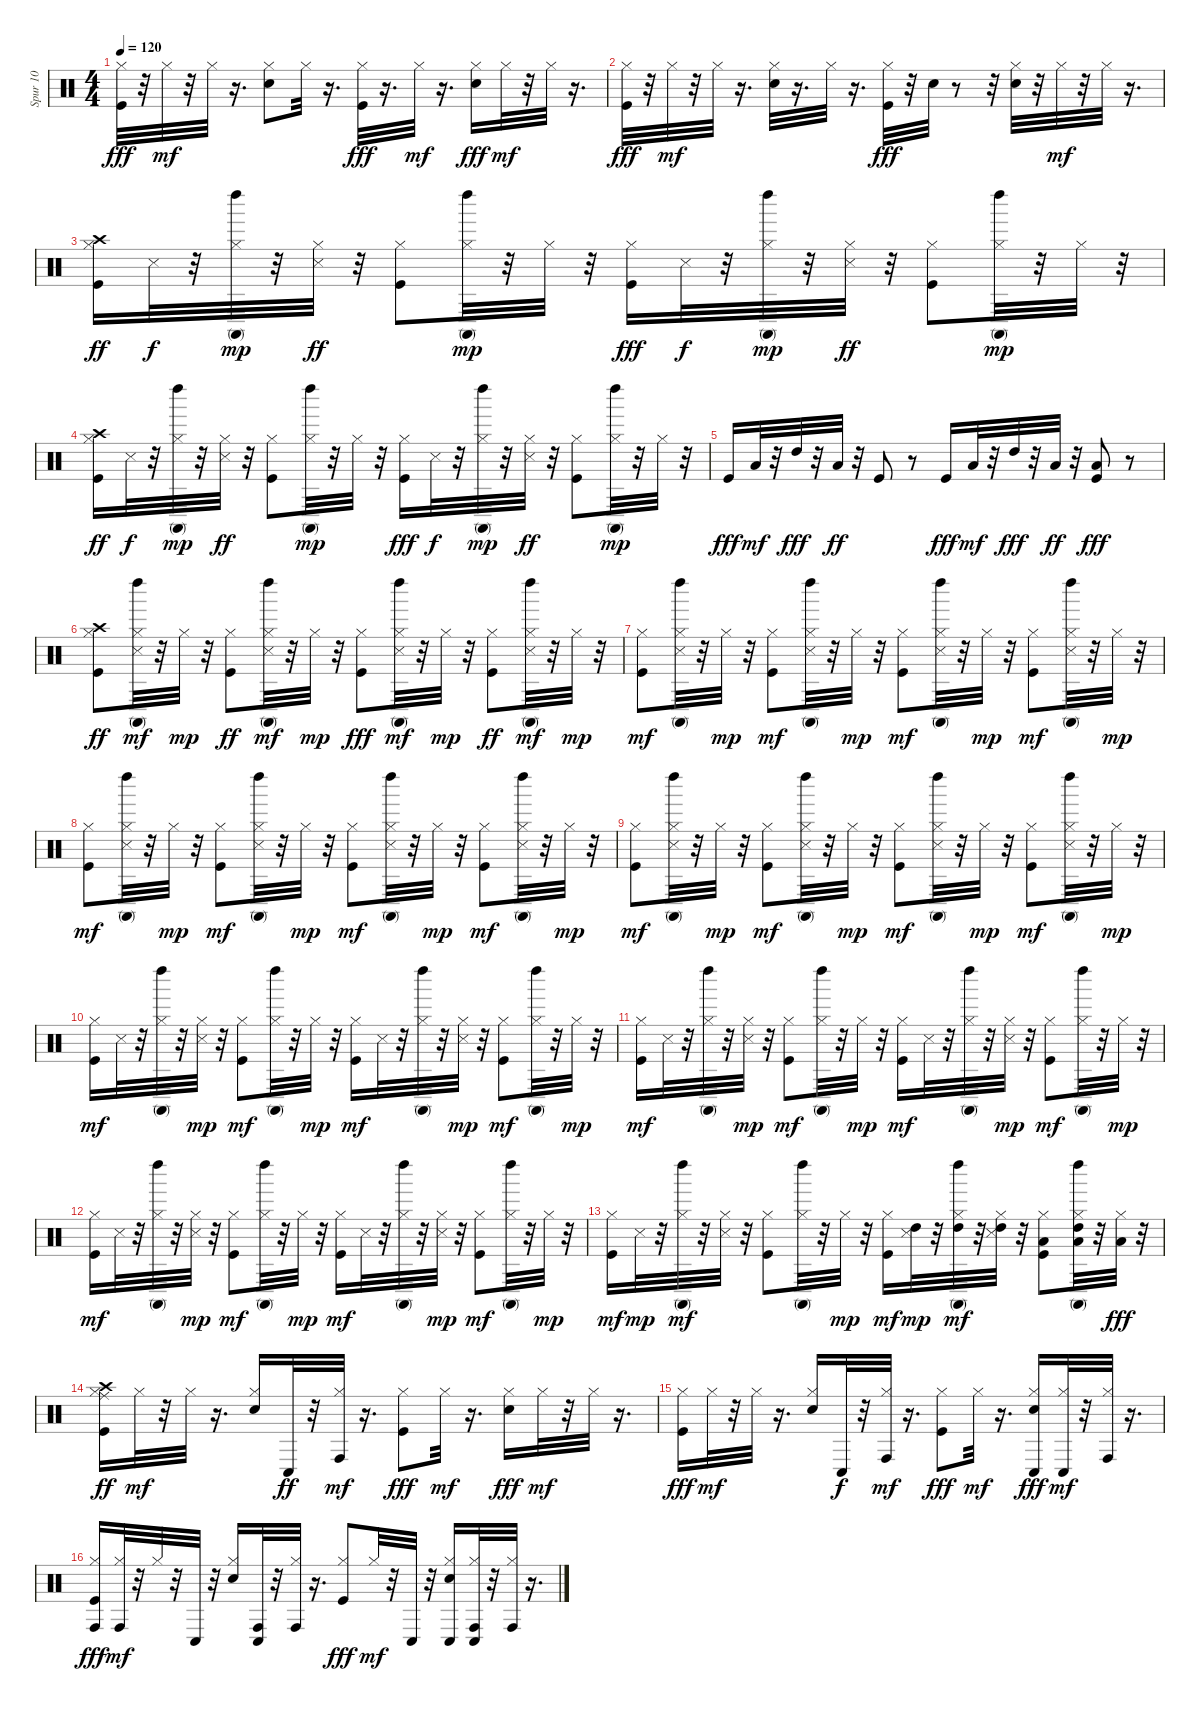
\track ("Spur 10" "Spur 10") {instrument percussion}
\staff {score}
\articulation defaults
\ts (4 4)
\tempo 120
\clef neutral
\ks c
("Kick (hit)" "Hi-Hat (closed)").32{dy fff} r.32 "Hi-Hat (closed)".32{dy mf} r.32 "Hi-Hat (closed)".32 r.16{d} ("Snare (hit) 2" "Hi-Hat (closed)").8 "Hi-Hat (closed)".32 r.16{d} ("Kick (hit)" "Hi-Hat (closed)").32{dy fff} r.16{d} "Hi-Hat (closed)".32{dy mf} r.16{d} ("Snare (hit) 2" "Hi-Hat (closed)").16{dy fff} "Hi-Hat (closed)".32{dy mf} r.32 "Hi-Hat (closed)".32 r.16{d} |
("Kick (hit)" "Hi-Hat (closed)").32{dy fff} r.32 "Hi-Hat (closed)".32{dy mf} r.32 "Hi-Hat (closed)".32 r.16{d} ("Snare (hit) 2" "Hi-Hat (closed)").32 r.16{d} "Hi-Hat (closed)".32 r.16{d} ("Kick (hit)" "Hi-Hat (closed)").32{dy fff} r.32 "Snare (hit) 2".32 r.8 r.32 ("Snare (hit) 2" "Hi-Hat (closed)").32 r.32 "Hi-Hat (closed)".32{dy mf} r.32 "Hi-Hat (closed)".32 r.16{d} |
("Kick (hit)" "Hi-Hat (closed)" "Crash high (hit)").16{dy ff} "Snare (side stick) 3".32{dy f} r.32 ("Hi-Hat (closed)" "Conga high (mute)" "Left Maraca (hit)").32{dy mp} r.32 ("Hi-Hat (closed)" "Snare (side stick) 3").32{dy ff} r.32 ("Kick (hit)" "Hi-Hat (closed)").8 ("Hi-Hat (closed)" "Conga high (mute)" "Left Maraca (hit)").32{dy mp} r.32 "Hi-Hat (closed)".32 r.32 ("Kick (hit)" "Hi-Hat (closed)").16{dy fff} "Snare (side stick) 3".32{dy f} r.32 ("Hi-Hat (closed)" "Conga high (mute)" "Left Maraca (hit)").32{dy mp} r.32 ("Hi-Hat (closed)" "Snare (side stick) 3").32{dy ff} r.32 ("Kick (hit)" "Hi-Hat (closed)").8 ("Hi-Hat (closed)" "Conga high (mute)" "Left Maraca (hit)").32{dy mp} r.32 "Hi-Hat (closed)".32 r.32 |
("Kick (hit)" "Hi-Hat (closed)" "Crash high (hit)").16{dy ff} "Snare (side stick) 3".32{dy f} r.32 ("Hi-Hat (closed)" "Conga high (mute)" "Left Maraca (hit)").32{dy mp} r.32 ("Hi-Hat (closed)" "Snare (side stick) 3").32{dy ff} r.32 ("Kick (hit)" "Hi-Hat (closed)").8 ("Hi-Hat (closed)" "Conga high (mute)" "Left Maraca (hit)").32{dy mp} r.32 "Hi-Hat (closed)".32 r.32 ("Kick (hit)" "Hi-Hat (closed)").16{dy fff} "Snare (side stick) 3".32{dy f} r.32 ("Hi-Hat (closed)" "Conga high (mute)" "Left Maraca (hit)").32{dy mp} r.32 ("Hi-Hat (closed)" "Snare (side stick) 3").32{dy ff} r.32 ("Kick (hit)" "Hi-Hat (closed)").8 ("Hi-Hat (closed)" "Conga high (mute)" "Left Maraca (hit)").32{dy mp} r.32 "Hi-Hat (closed)".32 r.32 |
"Kick (hit)".16{dy fff} "Low Tom (hit)".32{dy mf} r.32 "High Tom (hit)".32{dy fff} r.32 "Low Tom (hit)".32{dy ff} r.32 "Kick (hit)".8 r.8 "Kick (hit)".16{dy fff} "Low Tom (hit)".32{dy mf} r.32 "High Tom (hit)".32{dy fff} r.32 "Low Tom (hit)".32{dy ff} r.32 ("Kick (hit)" "Low Floor Tom (hit)").8{dy fff} r.8 |
("Kick (hit)" "Hi-Hat (closed)" "Crash high (hit)").8{dy ff} ("Hi-Hat (closed)" "Snare (side stick) 3" "Conga high (mute)" "Left Maraca (hit)").32{dy mf} r.32 "Hi-Hat (closed)".32{dy mp} r.32 ("Kick (hit)" "Hi-Hat (closed)").8{dy ff} ("Hi-Hat (closed)" "Snare (side stick) 3" "Conga high (mute)" "Left Maraca (hit)").32{dy mf} r.32 "Hi-Hat (closed)".32{dy mp} r.32 ("Kick (hit)" "Hi-Hat (closed)").8{dy fff} ("Hi-Hat (closed)" "Snare (side stick) 3" "Conga high (mute)" "Left Maraca (hit)").32{dy mf} r.32 "Hi-Hat (closed)".32{dy mp} r.32 ("Kick (hit)" "Hi-Hat (closed)").8{dy ff} ("Hi-Hat (closed)" "Snare (side stick) 3" "Conga high (mute)" "Left Maraca (hit)").32{dy mf} r.32 "Hi-Hat (closed)".32{dy mp} r.32 |
("Kick (hit)" "Hi-Hat (closed)").8{dy mf} ("Hi-Hat (closed)" "Snare (side stick) 3" "Conga high (mute)" "Left Maraca (hit)").32 r.32 "Hi-Hat (closed)".32{dy mp} r.32 ("Kick (hit)" "Hi-Hat (closed)").8{dy mf} ("Hi-Hat (closed)" "Snare (side stick) 3" "Conga high (mute)" "Left Maraca (hit)").32 r.32 "Hi-Hat (closed)".32{dy mp} r.32 ("Kick (hit)" "Hi-Hat (closed)").8{dy mf} ("Hi-Hat (closed)" "Snare (side stick) 3" "Conga high (mute)" "Left Maraca (hit)").32 r.32 "Hi-Hat (closed)".32{dy mp} r.32 ("Kick (hit)" "Hi-Hat (closed)").8{dy mf} ("Hi-Hat (closed)" "Snare (side stick) 3" "Conga high (mute)" "Left Maraca (hit)").32 r.32 "Hi-Hat (closed)".32{dy mp} r.32 |
("Kick (hit)" "Hi-Hat (closed)").8{dy mf} ("Hi-Hat (closed)" "Snare (side stick) 3" "Conga high (mute)" "Left Maraca (hit)").32 r.32 "Hi-Hat (closed)".32{dy mp} r.32 ("Kick (hit)" "Hi-Hat (closed)").8{dy mf} ("Hi-Hat (closed)" "Snare (side stick) 3" "Conga high (mute)" "Left Maraca (hit)").32 r.32 "Hi-Hat (closed)".32{dy mp} r.32 ("Kick (hit)" "Hi-Hat (closed)").8{dy mf} ("Hi-Hat (closed)" "Snare (side stick) 3" "Conga high (mute)" "Left Maraca (hit)").32 r.32 "Hi-Hat (closed)".32{dy mp} r.32 ("Kick (hit)" "Hi-Hat (closed)").8{dy mf} ("Hi-Hat (closed)" "Snare (side stick) 3" "Conga high (mute)" "Left Maraca (hit)").32 r.32 "Hi-Hat (closed)".32{dy mp} r.32 |
("Kick (hit)" "Hi-Hat (closed)").8{dy mf} ("Hi-Hat (closed)" "Snare (side stick) 3" "Conga high (mute)" "Left Maraca (hit)").32 r.32 "Hi-Hat (closed)".32{dy mp} r.32 ("Kick (hit)" "Hi-Hat (closed)").8{dy mf} ("Hi-Hat (closed)" "Snare (side stick) 3" "Conga high (mute)" "Left Maraca (hit)").32 r.32 "Hi-Hat (closed)".32{dy mp} r.32 ("Kick (hit)" "Hi-Hat (closed)").8{dy mf} ("Hi-Hat (closed)" "Snare (side stick) 3" "Conga high (mute)" "Left Maraca (hit)").32 r.32 "Hi-Hat (closed)".32{dy mp} r.32 ("Kick (hit)" "Hi-Hat (closed)").8{dy mf} ("Hi-Hat (closed)" "Snare (side stick) 3" "Conga high (mute)" "Left Maraca (hit)").32 r.32 "Hi-Hat (closed)".32{dy mp} r.32 |
("Kick (hit)" "Hi-Hat (closed)").16{dy mf} "Snare (side stick) 3".32 r.32 ("Hi-Hat (closed)" "Conga high (mute)" "Left Maraca (hit)").32 r.32 ("Hi-Hat (closed)" "Snare (side stick) 3").32{dy mp} r.32 ("Kick (hit)" "Hi-Hat (closed)").8{dy mf} ("Hi-Hat (closed)" "Conga high (mute)" "Left Maraca (hit)").32 r.32 "Hi-Hat (closed)".32{dy mp} r.32 ("Kick (hit)" "Hi-Hat (closed)").16{dy mf} "Snare (side stick) 3".32 r.32 ("Hi-Hat (closed)" "Conga high (mute)" "Left Maraca (hit)").32 r.32 ("Hi-Hat (closed)" "Snare (side stick) 3").32{dy mp} r.32 ("Kick (hit)" "Hi-Hat (closed)").8{dy mf} ("Hi-Hat (closed)" "Conga high (mute)" "Left Maraca (hit)").32 r.32 "Hi-Hat (closed)".32{dy mp} r.32 |
("Kick (hit)" "Hi-Hat (closed)").16{dy mf} "Snare (side stick) 3".32 r.32 ("Hi-Hat (closed)" "Conga high (mute)" "Left Maraca (hit)").32 r.32 ("Hi-Hat (closed)" "Snare (side stick) 3").32{dy mp} r.32 ("Kick (hit)" "Hi-Hat (closed)").8{dy mf} ("Hi-Hat (closed)" "Conga high (mute)" "Left Maraca (hit)").32 r.32 "Hi-Hat (closed)".32{dy mp} r.32 ("Kick (hit)" "Hi-Hat (closed)").16{dy mf} "Snare (side stick) 3".32 r.32 ("Hi-Hat (closed)" "Conga high (mute)" "Left Maraca (hit)").32 r.32 ("Hi-Hat (closed)" "Snare (side stick) 3").32{dy mp} r.32 ("Kick (hit)" "Hi-Hat (closed)").8{dy mf} ("Hi-Hat (closed)" "Conga high (mute)" "Left Maraca (hit)").32 r.32 "Hi-Hat (closed)".32{dy mp} r.32 |
("Kick (hit)" "Hi-Hat (closed)").16{dy mf} "Snare (side stick) 3".32 r.32 ("Hi-Hat (closed)" "Conga high (mute)" "Left Maraca (hit)").32 r.32 ("Hi-Hat (closed)" "Snare (side stick) 3").32{dy mp} r.32 ("Kick (hit)" "Hi-Hat (closed)").8{dy mf} ("Hi-Hat (closed)" "Conga high (mute)" "Left Maraca (hit)").32 r.32 "Hi-Hat (closed)".32{dy mp} r.32 ("Kick (hit)" "Hi-Hat (closed)").16{dy mf} "Snare (side stick) 3".32 r.32 ("Hi-Hat (closed)" "Conga high (mute)" "Left Maraca (hit)").32 r.32 ("Hi-Hat (closed)" "Snare (side stick) 3").32{dy mp} r.32 ("Kick (hit)" "Hi-Hat (closed)").8{dy mf} ("Hi-Hat (closed)" "Conga high (mute)" "Left Maraca (hit)").32 r.32 "Hi-Hat (closed)".32{dy mp} r.32 |
("Kick (hit)" "Hi-Hat (closed)").16{dy mf} "Snare (side stick) 3".32{dy mp} r.32 ("Hi-Hat (closed)" "Conga high (mute)" "Left Maraca (hit)").32{dy mf} r.32 ("Hi-Hat (closed)" "Snare (side stick) 3").32 r.32 ("Kick (hit)" "Hi-Hat (closed)").8 ("Hi-Hat (closed)" "Conga high (mute)" "Left Maraca (hit)").32 r.32 "Hi-Hat (closed)".32{dy mp} r.32 ("Kick (hit)" "Hi-Hat (closed)").16{dy mf} ("High Tom (hit)" "Snare (side stick) 3").32{dy mp} r.32 ("Hi-Hat (closed)" "High Tom (hit)" "Conga high (mute)" "Left Maraca (hit)").32{dy mf} r.32 ("Hi-Hat (closed)" "High Tom (hit)" "Snare (side stick) 3").32 r.32 ("Kick (hit)" "Hi-Hat (closed)" "Low Tom (hit)").8 ("Hi-Hat (closed)" "High Tom (hit)" "Low Tom (hit)" "Conga high (mute)" "Left Maraca (hit)").32 r.32 ("Hi-Hat (closed)" "Low Tom (hit)").32{dy fff} r.32 |
("Kick (hit)" "Hi-Hat (closed)" "Ride (middle)" "Crash high (hit)").16{dy ff} "Hi-Hat (closed)".32{dy mf} r.32 "Hi-Hat (closed)".32 r.16{d} ("Snare (hit) 2" "Hi-Hat (closed)").16 "Conga low (hit)".32{dy ff} r.32 ("Hi-Hat (closed)" "Conga high (hit)").32{dy mf} r.16{d} ("Kick (hit)" "Hi-Hat (closed)").8{dy fff} "Hi-Hat (closed)".32{dy mf} r.16{d} ("Snare (hit) 2" "Hi-Hat (closed)").16{dy fff} "Hi-Hat (closed)".32{dy mf} r.32 "Hi-Hat (closed)".32 r.16{d} |
("Kick (hit)" "Hi-Hat (closed)").16{dy fff} "Hi-Hat (closed)".32{dy mf} r.32 "Hi-Hat (closed)".32 r.16{d} ("Snare (hit) 2" "Hi-Hat (closed)").16 "Conga low (hit)".32{dy f} r.32 ("Hi-Hat (closed)" "Conga high (hit)").32{dy mf} r.16{d} ("Kick (hit)" "Hi-Hat (closed)").8{dy fff} "Hi-Hat (closed)".32{dy mf} r.16{d} ("Snare (hit) 2" "Hi-Hat (closed)" "Conga low (hit)").16{dy fff} ("Hi-Hat (closed)" "Conga low (hit)").32{dy mf} r.32 ("Hi-Hat (closed)" "Conga high (hit)").32 r.16{d} |
("Kick (hit)" "Hi-Hat (closed)" "Conga high (hit)").16{dy fff} ("Hi-Hat (closed)" "Conga high (hit)").32{dy mf} r.32 "Hi-Hat (closed)".32 r.32 "Conga low (hit)".32 r.32 ("Snare (hit) 2" "Hi-Hat (closed)").16 ("Conga high (hit)" "Conga low (hit)").32 r.32 ("Hi-Hat (closed)" "Conga high (hit)").32 r.16{d} ("Kick (hit)" "Hi-Hat (closed)").8{dy fff} "Hi-Hat (closed)".32{dy mf} r.32 "Conga low (hit)".32 r.32 ("Snare (hit) 2" "Hi-Hat (closed)" "Conga low (hit)").16 ("Hi-Hat (closed)" "Conga high (hit)" "Conga low (hit)").32 r.32 ("Hi-Hat (closed)" "Conga high (hit)").32 r.16{d}
